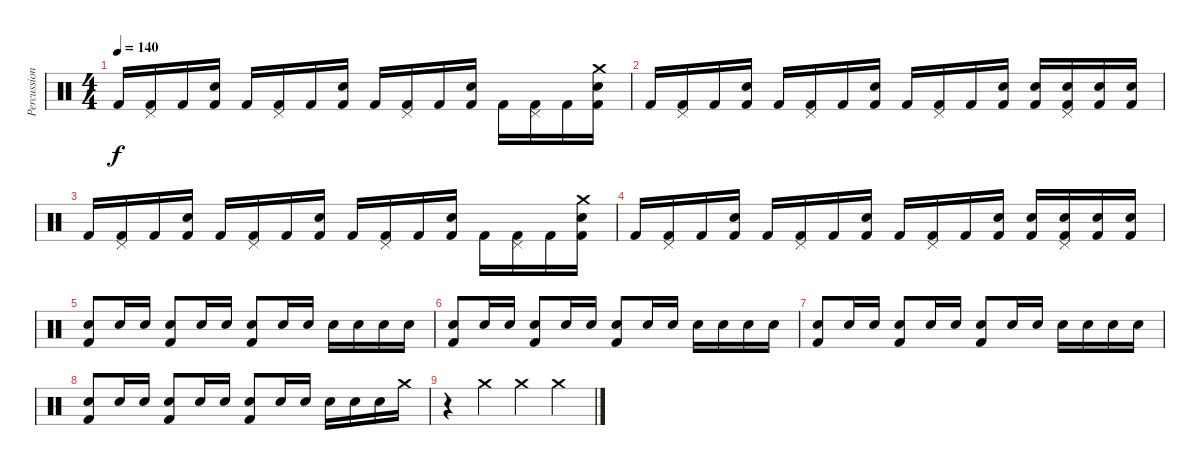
\track ("Percussion" "Percussion") {instrument percussion}
\staff {score}
\articulation defaults
\ts (4 4)
\tempo 140
\clef neutral
\ks c "Kick (hit) 2".16{dy f}
("Pedal Hi-Hat (hit)" "Kick (hit) 2").16 "Kick (hit) 2".16 ("Snare (hit) 2" "Kick (hit) 2").16 "Kick (hit) 2".16 ("Pedal Hi-Hat (hit)" "Kick (hit) 2").16 "Kick (hit) 2".16 ("Snare (hit) 2" "Kick (hit) 2").16 "Kick (hit) 2".16 ("Pedal Hi-Hat (hit)" "Kick (hit) 2").16 "Kick (hit) 2".16 ("Snare (hit) 2" "Kick (hit) 2").16 "Kick (hit) 2".16 ("Pedal Hi-Hat (hit)" "Kick (hit) 2").16 "Kick (hit) 2".16 ("Crash medium (hit)" "Snare (hit) 2" "Kick (hit) 2").16 |
"Kick (hit) 2".16 ("Pedal Hi-Hat (hit)" "Kick (hit) 2").16 "Kick (hit) 2".16 ("Snare (hit) 2" "Kick (hit) 2").16 "Kick (hit) 2".16 ("Pedal Hi-Hat (hit)" "Kick (hit) 2").16 "Kick (hit) 2".16 ("Snare (hit) 2" "Kick (hit) 2").16 "Kick (hit) 2".16 ("Pedal Hi-Hat (hit)" "Kick (hit) 2").16 "Kick (hit) 2".16 ("Snare (hit) 2" "Kick (hit) 2").16 ("Snare (hit) 2" "Kick (hit) 2").16 ("Pedal Hi-Hat (hit)" "Snare (hit) 2" "Kick (hit) 2").16 ("Snare (hit) 2" "Kick (hit) 2").16 ("Snare (hit) 2" "Kick (hit) 2").16 |
"Kick (hit) 2".16 ("Pedal Hi-Hat (hit)" "Kick (hit) 2").16 "Kick (hit) 2".16 ("Snare (hit) 2" "Kick (hit) 2").16 "Kick (hit) 2".16 ("Pedal Hi-Hat (hit)" "Kick (hit) 2").16 "Kick (hit) 2".16 ("Snare (hit) 2" "Kick (hit) 2").16 "Kick (hit) 2".16 ("Pedal Hi-Hat (hit)" "Kick (hit) 2").16 "Kick (hit) 2".16 ("Snare (hit) 2" "Kick (hit) 2").16 "Kick (hit) 2".16 ("Pedal Hi-Hat (hit)" "Kick (hit) 2").16 "Kick (hit) 2".16 ("Crash medium (hit)" "Snare (hit) 2" "Kick (hit) 2").16 |
"Kick (hit) 2".16 ("Pedal Hi-Hat (hit)" "Kick (hit) 2").16 "Kick (hit) 2".16 ("Snare (hit) 2" "Kick (hit) 2").16 "Kick (hit) 2".16 ("Pedal Hi-Hat (hit)" "Kick (hit) 2").16 "Kick (hit) 2".16 ("Snare (hit) 2" "Kick (hit) 2").16 "Kick (hit) 2".16 ("Pedal Hi-Hat (hit)" "Kick (hit) 2").16 "Kick (hit) 2".16 ("Snare (hit) 2" "Kick (hit) 2").16 ("Snare (hit) 2" "Kick (hit) 2").16 ("Pedal Hi-Hat (hit)" "Snare (hit) 2" "Kick (hit) 2").16 ("Snare (hit) 2" "Kick (hit) 2").16 ("Snare (hit) 2" "Kick (hit) 2").16 |
("Electric Snare (hit)" "Kick (hit) 2").8 "Electric Snare (hit)".16 "Electric Snare (hit)".16 ("Electric Snare (hit)" "Kick (hit) 2").8 "Electric Snare (hit)".16 "Electric Snare (hit)".16 ("Electric Snare (hit)" "Kick (hit) 2").8 "Electric Snare (hit)".16 "Electric Snare (hit)".16 "Electric Snare (hit)".16 "Electric Snare (hit)".16 "Electric Snare (hit)".16 "Electric Snare (hit)".16 |
("Electric Snare (hit)" "Kick (hit) 2").8 "Electric Snare (hit)".16 "Electric Snare (hit)".16 ("Electric Snare (hit)" "Kick (hit) 2").8 "Electric Snare (hit)".16 "Electric Snare (hit)".16 ("Electric Snare (hit)" "Kick (hit) 2").8 "Electric Snare (hit)".16 "Electric Snare (hit)".16 "Electric Snare (hit)".16 "Electric Snare (hit)".16 "Electric Snare (hit)".16 "Electric Snare (hit)".16 |
("Electric Snare (hit)" "Kick (hit) 2").8 "Electric Snare (hit)".16 "Electric Snare (hit)".16 ("Electric Snare (hit)" "Kick (hit) 2").8 "Electric Snare (hit)".16 "Electric Snare (hit)".16 ("Electric Snare (hit)" "Kick (hit) 2").8 "Electric Snare (hit)".16 "Electric Snare (hit)".16 "Electric Snare (hit)".16 "Electric Snare (hit)".16 "Electric Snare (hit)".16 "Electric Snare (hit)".16 |
("Electric Snare (hit)" "Kick (hit) 2").8 "Electric Snare (hit)".16 "Electric Snare (hit)".16 ("Electric Snare (hit)" "Kick (hit) 2").8 "Electric Snare (hit)".16 "Electric Snare (hit)".16 ("Electric Snare (hit)" "Kick (hit) 2").8 "Electric Snare (hit)".16 "Electric Snare (hit)".16 "Electric Snare (hit)".16 "Electric Snare (hit)".16 "Electric Snare (hit)".16 "Crash medium (hit)".16 |
r.4 "Crash medium (hit)".4 "Crash medium (hit)".4 "Crash medium (hit)".4
